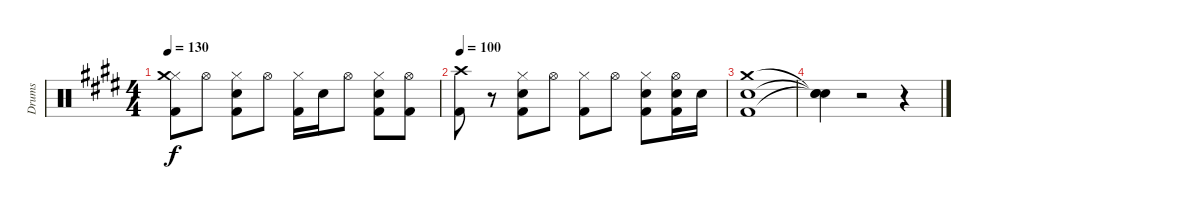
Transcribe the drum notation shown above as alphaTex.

\track ("Drums" "Drums") {instrument percussion}
\staff {score}
\articulation defaults
\ts (4 4)
\tempo 130
\clef neutral
\ks e
("Hi-Hat (closed)" "Crash medium (hit)" "Kick (hit) 2").8{dy f} "Hi-Hat (open)".8 ("Hi-Hat (closed)" "Electric Snare (hit)" "Kick (hit) 2").8 "Hi-Hat (open)".8 ("Hi-Hat (closed)" "Kick (hit) 2").16 "Electric Snare (hit)".16 "Hi-Hat (open)".8 ("Hi-Hat (closed)" "Electric Snare (hit)" "Kick (hit) 2").8 ("Hi-Hat (open)" "Kick (hit) 2").8 |
\tempo 100
("Crash high (hit)" "Kick (hit) 2").8 r.8 ("Hi-Hat (closed)" "Electric Snare (hit)" "Kick (hit) 2").8 "Hi-Hat (open)".8 ("Hi-Hat (closed)" "Kick (hit) 2").8 "Hi-Hat (open)".8 ("Hi-Hat (closed)" "Electric Snare (hit)" "Kick (hit) 2").8 ("Hi-Hat (open)" "Electric Snare (hit)" "Kick (hit) 2").16 "Electric Snare (hit)".16 |
("Crash medium (hit)" "Electric Snare (hit)" "Kick (hit) 2").1 |
("Snare (hit)"{t} "Snare (hit)"{t} "Snare (hit)"{t}).4 r.2 r.4
